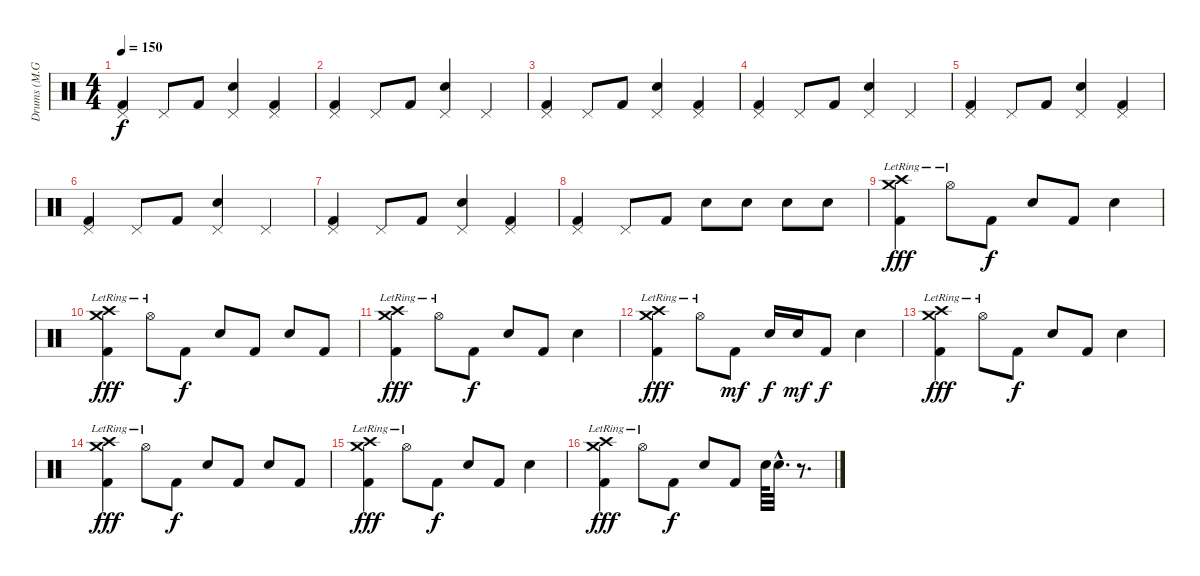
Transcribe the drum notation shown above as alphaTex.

\track ("Drums (M.Großkopf)" "Drums (M.G") {instrument percussion}
\staff {score}
\articulation defaults
\ts (4 4)
\tempo 150
\clef neutral
\ks c
("Pedal Hi-Hat (hit)" "Kick (hit) 2").4{dy f} "Pedal Hi-Hat (hit)".8 "Kick (hit) 2".8 ("Pedal Hi-Hat (hit)" "Electric Snare (hit)").4 ("Pedal Hi-Hat (hit)" "Kick (hit) 2").4 |
("Pedal Hi-Hat (hit)" "Kick (hit) 2").4 "Pedal Hi-Hat (hit)".8 "Kick (hit) 2".8 ("Pedal Hi-Hat (hit)" "Electric Snare (hit)").4 "Pedal Hi-Hat (hit)".4 |
("Pedal Hi-Hat (hit)" "Kick (hit) 2").4 "Pedal Hi-Hat (hit)".8 "Kick (hit) 2".8 ("Pedal Hi-Hat (hit)" "Electric Snare (hit)").4 ("Pedal Hi-Hat (hit)" "Kick (hit) 2").4 |
("Pedal Hi-Hat (hit)" "Kick (hit) 2").4 "Pedal Hi-Hat (hit)".8 "Kick (hit) 2".8 ("Pedal Hi-Hat (hit)" "Electric Snare (hit)").4 "Pedal Hi-Hat (hit)".4 |
("Pedal Hi-Hat (hit)" "Kick (hit) 2").4 "Pedal Hi-Hat (hit)".8 "Kick (hit) 2".8 ("Pedal Hi-Hat (hit)" "Electric Snare (hit)").4 ("Pedal Hi-Hat (hit)" "Kick (hit) 2").4 |
("Pedal Hi-Hat (hit)" "Kick (hit) 2").4 "Pedal Hi-Hat (hit)".8 "Kick (hit) 2".8 ("Pedal Hi-Hat (hit)" "Electric Snare (hit)").4 "Pedal Hi-Hat (hit)".4 |
("Pedal Hi-Hat (hit)" "Kick (hit) 2").4 "Pedal Hi-Hat (hit)".8 "Kick (hit) 2".8 ("Pedal Hi-Hat (hit)" "Electric Snare (hit)").4 ("Pedal Hi-Hat (hit)" "Kick (hit) 2").4 |
("Pedal Hi-Hat (hit)" "Kick (hit) 2").4 "Pedal Hi-Hat (hit)".8 "Kick (hit) 2".8 "Electric Snare (hit)".8 "Electric Snare (hit)".8 "Electric Snare (hit)".8 "Electric Snare (hit)".8 |
("Crash high (hit)"{lr} "Crash medium (hit)"{lr} "Kick (hit) 2").4{dy fff} "Hi-Hat (open)"{lr}.8 "Kick (hit) 2".8{dy f} "Electric Snare (hit)".8 "Kick (hit) 2".8 "Electric Snare (hit)".4 |
("Crash high (hit)"{lr} "Crash medium (hit)"{lr} "Kick (hit) 2").4{dy fff} "Hi-Hat (open)"{lr}.8 "Kick (hit) 2".8{dy f} "Electric Snare (hit)".8 "Kick (hit) 2".8 "Electric Snare (hit)".8 "Kick (hit) 2".8 |
("Crash high (hit)"{lr} "Crash medium (hit)"{lr} "Kick (hit) 2").4{dy fff} "Hi-Hat (open)"{lr}.8 "Kick (hit) 2".8{dy f} "Electric Snare (hit)".8 "Kick (hit) 2".8 "Electric Snare (hit)".4 |
("Crash high (hit)"{lr} "Crash medium (hit)"{lr} "Kick (hit) 2").4{dy fff} "Hi-Hat (open)"{lr}.8 "Kick (hit) 2".8{dy mf} "Electric Snare (hit)".16{dy f} "Electric Snare (hit)".16{dy mf} "Kick (hit) 2".8{dy f} "Electric Snare (hit)".4 |
("Crash high (hit)"{lr} "Crash medium (hit)"{lr} "Kick (hit) 2").4{dy fff} "Hi-Hat (open)"{lr}.8 "Kick (hit) 2".8{dy f} "Electric Snare (hit)".8 "Kick (hit) 2".8 "Electric Snare (hit)".4 |
("Crash high (hit)"{lr} "Crash medium (hit)"{lr} "Kick (hit) 2").4{dy fff} "Hi-Hat (open)"{lr}.8 "Kick (hit) 2".8{dy f} "Electric Snare (hit)".8 "Kick (hit) 2".8 "Electric Snare (hit)".8 "Kick (hit) 2".8 |
("Crash high (hit)"{lr} "Crash medium (hit)"{lr} "Kick (hit) 2").4{dy fff} "Hi-Hat (open)"{lr}.8 "Kick (hit) 2".8{dy f} "Electric Snare (hit)".8 "Kick (hit) 2".8 "Electric Snare (hit)".4 |
("Crash high (hit)"{lr} "Crash medium (hit)"{lr} "Kick (hit) 2").4{dy fff} "Hi-Hat (open)"{lr}.8 "Kick (hit) 2".8{dy f} "Electric Snare (hit)".8 "Kick (hit) 2".8 "Electric Snare (hit)".64 "Electric Snare (hit)"{hac}.32{d} r.8{d}
